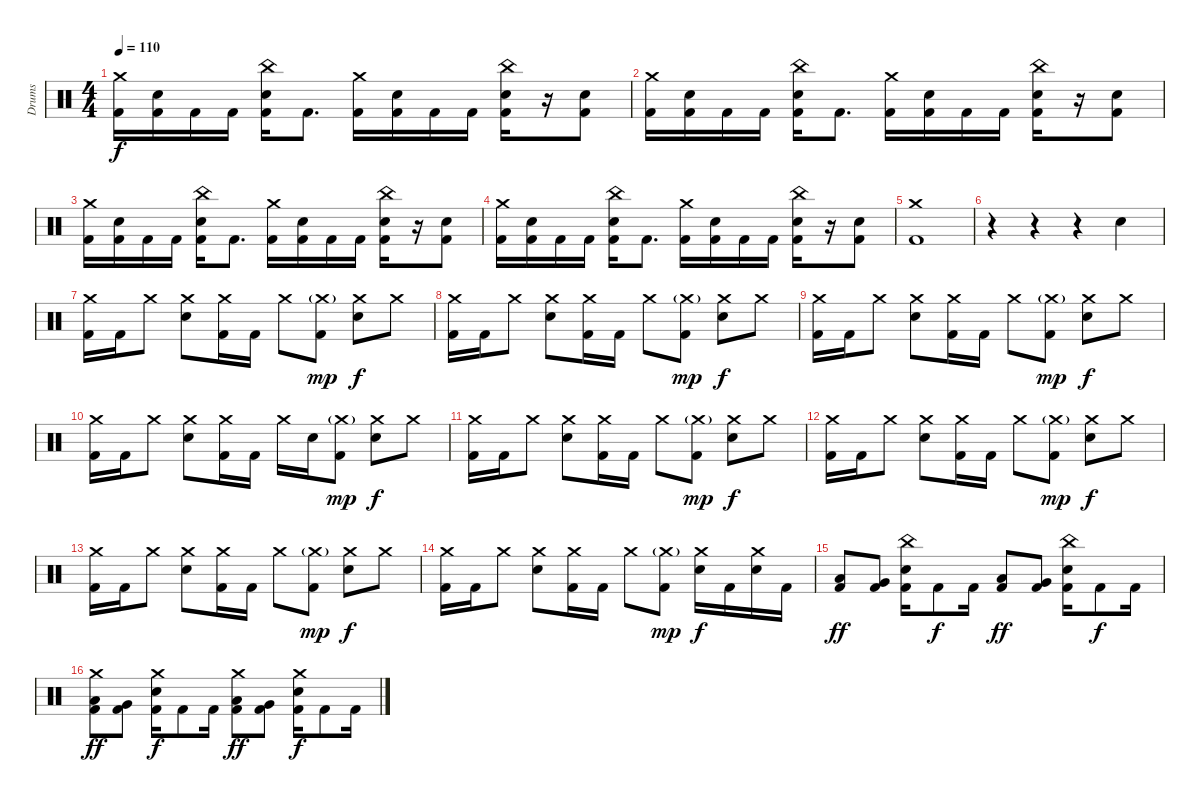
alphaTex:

\track ("Drums" "Drums") {instrument percussion}
\staff {score}
\articulation defaults
\ts (4 4)
\tempo 110
\clef neutral
\ks c
("Crash medium (hit)" "Kick (hit) 2").16{dy f} ("Snare (hit) 2" "Kick (hit) 2").16 "Kick (hit) 2".16 "Kick (hit) 2".16 ("China (hit)" "Snare (hit) 2" "Kick (hit) 2").16 "Kick (hit) 2".8{d} ("Crash medium (hit)" "Kick (hit) 2").16 ("Snare (hit) 2" "Kick (hit) 2").16 "Kick (hit) 2".16 "Kick (hit) 2".16 ("China (hit)" "Snare (hit) 2" "Kick (hit) 2").16 r.16 ("Snare (hit) 2" "Kick (hit) 2").8 |
("Crash medium (hit)" "Kick (hit) 2").16 ("Snare (hit) 2" "Kick (hit) 2").16 "Kick (hit) 2".16 "Kick (hit) 2".16 ("China (hit)" "Snare (hit) 2" "Kick (hit) 2").16 "Kick (hit) 2".8{d} ("Crash medium (hit)" "Kick (hit) 2").16 ("Snare (hit) 2" "Kick (hit) 2").16 "Kick (hit) 2".16 "Kick (hit) 2".16 ("China (hit)" "Snare (hit) 2" "Kick (hit) 2").16 r.16 ("Snare (hit) 2" "Kick (hit) 2").8 |
("Crash medium (hit)" "Kick (hit) 2").16 ("Snare (hit) 2" "Kick (hit) 2").16 "Kick (hit) 2".16 "Kick (hit) 2".16 ("China (hit)" "Snare (hit) 2" "Kick (hit) 2").16 "Kick (hit) 2".8{d} ("Crash medium (hit)" "Kick (hit) 2").16 ("Snare (hit) 2" "Kick (hit) 2").16 "Kick (hit) 2".16 "Kick (hit) 2".16 ("China (hit)" "Snare (hit) 2" "Kick (hit) 2").16 r.16 ("Snare (hit) 2" "Kick (hit) 2").8 |
("Crash medium (hit)" "Kick (hit) 2").16 ("Snare (hit) 2" "Kick (hit) 2").16 "Kick (hit) 2".16 "Kick (hit) 2".16 ("China (hit)" "Snare (hit) 2" "Kick (hit) 2").16 "Kick (hit) 2".8{d} ("Crash medium (hit)" "Kick (hit) 2").16 ("Snare (hit) 2" "Kick (hit) 2").16 "Kick (hit) 2".16 "Kick (hit) 2".16 ("China (hit)" "Snare (hit) 2" "Kick (hit) 2").16 r.16 ("Snare (hit) 2" "Kick (hit) 2").8 |
("Crash medium (hit)" "Kick (hit) 2").1 |
r.4 r.4 r.4 "Snare (hit) 2".4 |
("Crash medium (hit)" "Kick (hit) 2").16 "Kick (hit) 2".16 "Crash medium (hit)".8 ("Crash medium (hit)" "Snare (hit) 2").8 ("Crash medium (hit)" "Kick (hit) 2").16 "Kick (hit) 2".16 "Crash medium (hit)".8 ("Crash medium (hit)"{g} "Kick (hit) 2").8{dy mp} ("Crash medium (hit)" "Snare (hit) 2").8{dy f} "Crash medium (hit)".8 |
("Crash medium (hit)" "Kick (hit) 2").16 "Kick (hit) 2".16 "Crash medium (hit)".8 ("Crash medium (hit)" "Snare (hit) 2").8 ("Crash medium (hit)" "Kick (hit) 2").16 "Kick (hit) 2".16 "Crash medium (hit)".8 ("Crash medium (hit)"{g} "Kick (hit) 2").8{dy mp} ("Crash medium (hit)" "Snare (hit) 2").8{dy f} "Crash medium (hit)".8 |
("Crash medium (hit)" "Kick (hit) 2").16 "Kick (hit) 2".16 "Crash medium (hit)".8 ("Crash medium (hit)" "Snare (hit) 2").8 ("Crash medium (hit)" "Kick (hit) 2").16 "Kick (hit) 2".16 "Crash medium (hit)".8 ("Crash medium (hit)"{g} "Kick (hit) 2").8{dy mp} ("Crash medium (hit)" "Snare (hit) 2").8{dy f} "Crash medium (hit)".8 |
("Crash medium (hit)" "Kick (hit) 2").16 "Kick (hit) 2".16 "Crash medium (hit)".8 ("Crash medium (hit)" "Snare (hit) 2").8 ("Crash medium (hit)" "Kick (hit) 2").16 "Kick (hit) 2".16 "Crash medium (hit)".16 "Snare (hit) 2".16 ("Crash medium (hit)"{g} "Kick (hit) 2").8{dy mp} ("Crash medium (hit)" "Snare (hit) 2").8{dy f} "Crash medium (hit)".8 |
("Crash medium (hit)" "Kick (hit) 2").16 "Kick (hit) 2".16 "Crash medium (hit)".8 ("Crash medium (hit)" "Snare (hit) 2").8 ("Crash medium (hit)" "Kick (hit) 2").16 "Kick (hit) 2".16 "Crash medium (hit)".8 ("Crash medium (hit)"{g} "Kick (hit) 2").8{dy mp} ("Crash medium (hit)" "Snare (hit) 2").8{dy f} "Crash medium (hit)".8 |
("Crash medium (hit)" "Kick (hit) 2").16 "Kick (hit) 2".16 "Crash medium (hit)".8 ("Crash medium (hit)" "Snare (hit) 2").8 ("Crash medium (hit)" "Kick (hit) 2").16 "Kick (hit) 2".16 "Crash medium (hit)".8 ("Crash medium (hit)"{g} "Kick (hit) 2").8{dy mp} ("Crash medium (hit)" "Snare (hit) 2").8{dy f} "Crash medium (hit)".8 |
("Crash medium (hit)" "Kick (hit) 2").16 "Kick (hit) 2".16 "Crash medium (hit)".8 ("Crash medium (hit)" "Snare (hit) 2").8 ("Crash medium (hit)" "Kick (hit) 2").16 "Kick (hit) 2".16 "Crash medium (hit)".8 ("Crash medium (hit)"{g} "Kick (hit) 2").8{dy mp} ("Crash medium (hit)" "Snare (hit) 2").8{dy f} "Crash medium (hit)".8 |
("Crash medium (hit)" "Kick (hit) 2").16 "Kick (hit) 2".16 "Crash medium (hit)".8 ("Crash medium (hit)" "Snare (hit) 2").8 ("Crash medium (hit)" "Kick (hit) 2").16 "Kick (hit) 2".16 "Crash medium (hit)".8 ("Crash medium (hit)"{g} "Kick (hit) 2").8{dy mp} ("Crash medium (hit)" "Snare (hit) 2").16{dy f} "Kick (hit) 2".16 ("Crash medium (hit)" "Snare (hit) 2").16 "Kick (hit) 2".16 |
("Low Tom (hit)" "Kick (hit) 2").8{dy ff} ("Very Low Tom (hit)" "Kick (hit) 2").8 ("China (hit)" "Snare (hit) 2" "Kick (hit) 2").16 "Kick (hit) 2".8{dy f} "Kick (hit) 2".16 ("Low Tom (hit)" "Kick (hit) 2").8{dy ff} ("Very Low Tom (hit)" "Kick (hit) 2").8 ("China (hit)" "Snare (hit) 2" "Kick (hit) 2").16 "Kick (hit) 2".8{dy f} "Kick (hit) 2".16 |
("Crash medium (hit)" "Low Tom (hit)" "Kick (hit) 2").8{dy ff} ("Very Low Tom (hit)" "Kick (hit) 2").8 ("Crash medium (hit)" "Snare (hit) 2" "Kick (hit) 2").16{dy f} "Kick (hit) 2".8 "Kick (hit) 2".16 ("Crash medium (hit)" "Low Tom (hit)" "Kick (hit) 2").8{dy ff} ("Very Low Tom (hit)" "Kick (hit) 2").8 ("Crash medium (hit)" "Snare (hit) 2" "Kick (hit) 2").16{dy f} "Kick (hit) 2".8 "Kick (hit) 2".16
